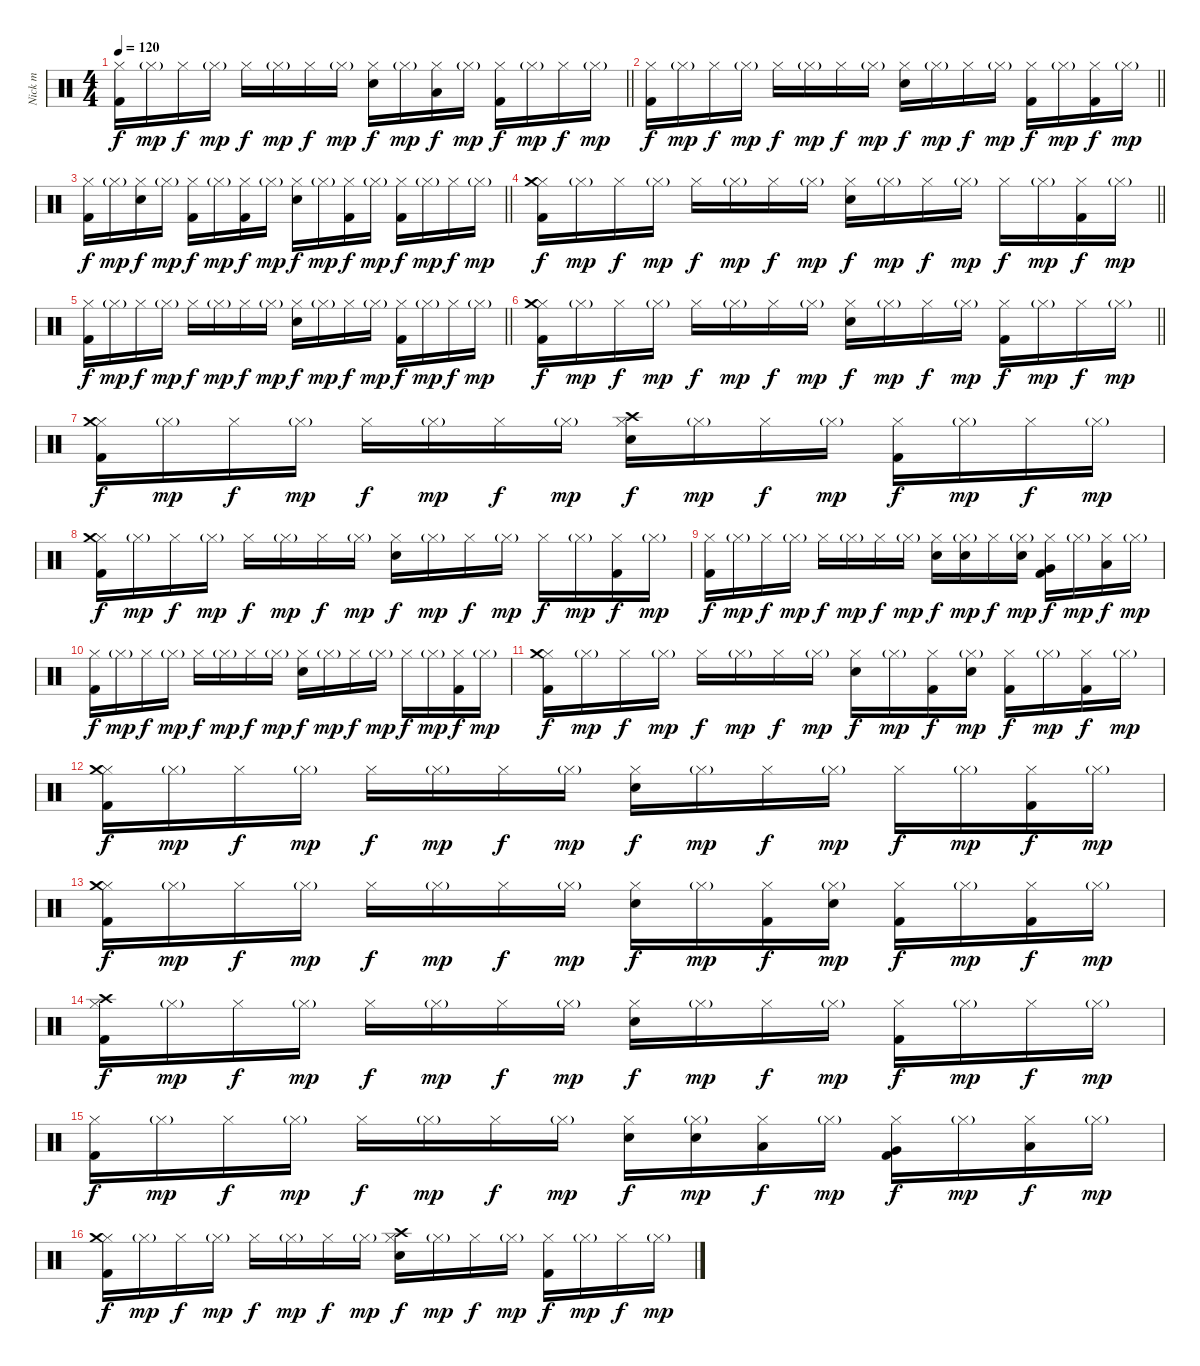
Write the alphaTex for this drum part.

\track ("Nick m" "Nick m") {instrument percussion}
\staff {score}
\articulation defaults
\ts (4 4)
\tempo 120
\clef neutral
\barLineRight lightlight
\ks c
("Hi-Hat (closed)" "Kick (hit) 2").16{dy f} "Hi-Hat (closed)"{g}.16{dy mp} "Hi-Hat (closed)".16{dy f} "Hi-Hat (closed)"{g}.16{dy mp} "Hi-Hat (closed)".16{dy f} "Hi-Hat (closed)"{g}.16{dy mp} "Hi-Hat (closed)".16{dy f} "Hi-Hat (closed)"{g}.16{dy mp} ("Hi-Hat (closed)" "Snare (hit) 2").16{dy f} "Hi-Hat (closed)"{g}.16{dy mp} ("Hi-Hat (closed)" "Low Floor Tom (hit)").16{dy f} "Hi-Hat (closed)"{g}.16{dy mp} ("Hi-Hat (closed)" "Kick (hit) 2").16{dy f} "Hi-Hat (closed)"{g}.16{dy mp} "Hi-Hat (closed)".16{dy f} "Hi-Hat (closed)"{g}.16{dy mp} |
\barLineRight lightlight
("Hi-Hat (closed)" "Kick (hit) 2").16{dy f} "Hi-Hat (closed)"{g}.16{dy mp} "Hi-Hat (closed)".16{dy f} "Hi-Hat (closed)"{g}.16{dy mp} "Hi-Hat (closed)".16{dy f} "Hi-Hat (closed)"{g}.16{dy mp} "Hi-Hat (closed)".16{dy f} "Hi-Hat (closed)"{g}.16{dy mp} ("Hi-Hat (closed)" "Snare (hit) 2").16{dy f} "Hi-Hat (closed)"{g}.16{dy mp} "Hi-Hat (closed)".16{dy f} "Hi-Hat (closed)"{g}.16{dy mp} ("Hi-Hat (closed)" "Kick (hit) 2").16{dy f} "Hi-Hat (closed)"{g}.16{dy mp} ("Hi-Hat (closed)" "Kick (hit) 2").16{dy f} "Hi-Hat (closed)"{g}.16{dy mp} |
\barLineRight lightlight
("Hi-Hat (closed)" "Kick (hit) 2").16{dy f} "Hi-Hat (closed)"{g}.16{dy mp} ("Hi-Hat (closed)" "Snare (hit) 2").16{dy f} "Hi-Hat (closed)"{g}.16{dy mp} ("Hi-Hat (closed)" "Kick (hit) 2").16{dy f} "Hi-Hat (closed)"{g}.16{dy mp} ("Hi-Hat (closed)" "Kick (hit) 2").16{dy f} "Hi-Hat (closed)"{g}.16{dy mp} ("Hi-Hat (closed)" "Snare (hit) 2").16{dy f} "Hi-Hat (closed)"{g}.16{dy mp} ("Hi-Hat (closed)" "Kick (hit) 2").16{dy f} "Hi-Hat (closed)"{g}.16{dy mp} ("Hi-Hat (closed)" "Kick (hit) 2").16{dy f} "Hi-Hat (closed)"{g}.16{dy mp} "Hi-Hat (closed)".16{dy f} "Hi-Hat (closed)"{g}.16{dy mp} |
\barLineRight lightlight
("Hi-Hat (closed)" "Crash medium (hit)" "Kick (hit) 2").16{dy f} "Hi-Hat (closed)"{g}.16{dy mp} "Hi-Hat (closed)".16{dy f} "Hi-Hat (closed)"{g}.16{dy mp} "Hi-Hat (closed)".16{dy f} "Hi-Hat (closed)"{g}.16{dy mp} "Hi-Hat (closed)".16{dy f} "Hi-Hat (closed)"{g}.16{dy mp} ("Hi-Hat (closed)" "Snare (hit) 2").16{dy f} "Hi-Hat (closed)"{g}.16{dy mp} "Hi-Hat (closed)".16{dy f} "Hi-Hat (closed)"{g}.16{dy mp} "Hi-Hat (closed)".16{dy f} "Hi-Hat (closed)"{g}.16{dy mp} ("Hi-Hat (closed)" "Kick (hit) 2").16{dy f} "Hi-Hat (closed)"{g}.16{dy mp} |
\barLineRight lightlight
("Hi-Hat (closed)" "Kick (hit) 2").16{dy f} "Hi-Hat (closed)"{g}.16{dy mp} "Hi-Hat (closed)".16{dy f} "Hi-Hat (closed)"{g}.16{dy mp} "Hi-Hat (closed)".16{dy f} "Hi-Hat (closed)"{g}.16{dy mp} "Hi-Hat (closed)".16{dy f} "Hi-Hat (closed)"{g}.16{dy mp} ("Hi-Hat (closed)" "Snare (hit) 2").16{dy f} "Hi-Hat (closed)"{g}.16{dy mp} "Hi-Hat (closed)".16{dy f} "Hi-Hat (closed)"{g}.16{dy mp} ("Hi-Hat (closed)" "Kick (hit) 2").16{dy f} "Hi-Hat (closed)"{g}.16{dy mp} "Hi-Hat (closed)".16{dy f} "Hi-Hat (closed)"{g}.16{dy mp} |
\barLineRight lightlight
("Hi-Hat (closed)" "Crash medium (hit)" "Kick (hit) 2").16{dy f} "Hi-Hat (closed)"{g}.16{dy mp} "Hi-Hat (closed)".16{dy f} "Hi-Hat (closed)"{g}.16{dy mp} "Hi-Hat (closed)".16{dy f} "Hi-Hat (closed)"{g}.16{dy mp} "Hi-Hat (closed)".16{dy f} "Hi-Hat (closed)"{g}.16{dy mp} ("Hi-Hat (closed)" "Snare (hit) 2").16{dy f} "Hi-Hat (closed)"{g}.16{dy mp} "Hi-Hat (closed)".16{dy f} "Hi-Hat (closed)"{g}.16{dy mp} ("Hi-Hat (closed)" "Kick (hit) 2").16{dy f} "Hi-Hat (closed)"{g}.16{dy mp} "Hi-Hat (closed)".16{dy f} "Hi-Hat (closed)"{g}.16{dy mp} |
("Hi-Hat (closed)" "Crash medium (hit)" "Kick (hit) 2").16{dy f} "Hi-Hat (closed)"{g}.16{dy mp} "Hi-Hat (closed)".16{dy f} "Hi-Hat (closed)"{g}.16{dy mp} "Hi-Hat (closed)".16{dy f} "Hi-Hat (closed)"{g}.16{dy mp} "Hi-Hat (closed)".16{dy f} "Hi-Hat (closed)"{g}.16{dy mp} ("Hi-Hat (closed)" "Crash high (hit)" "Snare (hit) 2").16{dy f} "Hi-Hat (closed)"{g}.16{dy mp} "Hi-Hat (closed)".16{dy f} "Hi-Hat (closed)"{g}.16{dy mp} ("Hi-Hat (closed)" "Kick (hit) 2").16{dy f} "Hi-Hat (closed)"{g}.16{dy mp} "Hi-Hat (closed)".16{dy f} "Hi-Hat (closed)"{g}.16{dy mp} |
("Hi-Hat (closed)" "Crash medium (hit)" "Kick (hit) 2").16{dy f} "Hi-Hat (closed)"{g}.16{dy mp} "Hi-Hat (closed)".16{dy f} "Hi-Hat (closed)"{g}.16{dy mp} "Hi-Hat (closed)".16{dy f} "Hi-Hat (closed)"{g}.16{dy mp} "Hi-Hat (closed)".16{dy f} "Hi-Hat (closed)"{g}.16{dy mp} ("Hi-Hat (closed)" "Snare (hit) 2").16{dy f} "Hi-Hat (closed)"{g}.16{dy mp} "Hi-Hat (closed)".16{dy f} "Hi-Hat (closed)"{g}.16{dy mp} "Hi-Hat (closed)".16{dy f} "Hi-Hat (closed)"{g}.16{dy mp} ("Hi-Hat (closed)" "Kick (hit) 2").16{dy f} "Hi-Hat (closed)"{g}.16{dy mp} |
("Hi-Hat (closed)" "Kick (hit) 2").16{dy f} "Hi-Hat (closed)"{g}.16{dy mp} "Hi-Hat (closed)".16{dy f} "Hi-Hat (closed)"{g}.16{dy mp} "Hi-Hat (closed)".16{dy f} "Hi-Hat (closed)"{g}.16{dy mp} "Hi-Hat (closed)".16{dy f} "Hi-Hat (closed)"{g}.16{dy mp} ("Hi-Hat (closed)" "Snare (hit) 2").16{dy f} ("Hi-Hat (closed)"{g} "Snare (hit) 2").16{dy mp} "Hi-Hat (closed)".16{dy f} ("Hi-Hat (closed)"{g} "Snare (hit) 2").16{dy mp} ("Hi-Hat (closed)" "Very Low Tom (hit)" "Kick (hit) 2").16{dy f} "Hi-Hat (closed)"{g}.16{dy mp} ("Hi-Hat (closed)" "Low Floor Tom (hit)").16{dy f} "Hi-Hat (closed)"{g}.16{dy mp} |
("Hi-Hat (closed)" "Kick (hit) 2").16{dy f} "Hi-Hat (closed)"{g}.16{dy mp} "Hi-Hat (closed)".16{dy f} "Hi-Hat (closed)"{g}.16{dy mp} "Hi-Hat (closed)".16{dy f} "Hi-Hat (closed)"{g}.16{dy mp} "Hi-Hat (closed)".16{dy f} "Hi-Hat (closed)"{g}.16{dy mp} ("Hi-Hat (closed)" "Snare (hit) 2").16{dy f} "Hi-Hat (closed)"{g}.16{dy mp} "Hi-Hat (closed)".16{dy f} "Hi-Hat (closed)"{g}.16{dy mp} "Hi-Hat (closed)".16{dy f} "Hi-Hat (closed)"{g}.16{dy mp} ("Hi-Hat (closed)" "Kick (hit) 2").16{dy f} "Hi-Hat (closed)"{g}.16{dy mp} |
("Hi-Hat (closed)" "Crash medium (hit)" "Kick (hit) 2").16{dy f} "Hi-Hat (closed)"{g}.16{dy mp} "Hi-Hat (closed)".16{dy f} "Hi-Hat (closed)"{g}.16{dy mp} "Hi-Hat (closed)".16{dy f} "Hi-Hat (closed)"{g}.16{dy mp} "Hi-Hat (closed)".16{dy f} "Hi-Hat (closed)"{g}.16{dy mp} ("Hi-Hat (closed)" "Snare (hit) 2").16{dy f} "Hi-Hat (closed)"{g}.16{dy mp} ("Hi-Hat (closed)" "Kick (hit) 2").16{dy f} ("Hi-Hat (closed)"{g} "Snare (hit) 2").16{dy mp} ("Hi-Hat (closed)" "Kick (hit) 2").16{dy f} "Hi-Hat (closed)"{g}.16{dy mp} ("Hi-Hat (closed)" "Kick (hit) 2").16{dy f} "Hi-Hat (closed)"{g}.16{dy mp} |
("Hi-Hat (closed)" "Crash medium (hit)" "Kick (hit) 2").16{dy f} "Hi-Hat (closed)"{g}.16{dy mp} "Hi-Hat (closed)".16{dy f} "Hi-Hat (closed)"{g}.16{dy mp} "Hi-Hat (closed)".16{dy f} "Hi-Hat (closed)"{g}.16{dy mp} "Hi-Hat (closed)".16{dy f} "Hi-Hat (closed)"{g}.16{dy mp} ("Hi-Hat (closed)" "Snare (hit) 2").16{dy f} "Hi-Hat (closed)"{g}.16{dy mp} "Hi-Hat (closed)".16{dy f} "Hi-Hat (closed)"{g}.16{dy mp} "Hi-Hat (closed)".16{dy f} "Hi-Hat (closed)"{g}.16{dy mp} ("Hi-Hat (closed)" "Kick (hit) 2").16{dy f} "Hi-Hat (closed)"{g}.16{dy mp} |
("Hi-Hat (closed)" "Crash medium (hit)" "Kick (hit) 2").16{dy f} "Hi-Hat (closed)"{g}.16{dy mp} "Hi-Hat (closed)".16{dy f} "Hi-Hat (closed)"{g}.16{dy mp} "Hi-Hat (closed)".16{dy f} "Hi-Hat (closed)"{g}.16{dy mp} "Hi-Hat (closed)".16{dy f} "Hi-Hat (closed)"{g}.16{dy mp} ("Hi-Hat (closed)" "Snare (hit) 2").16{dy f} "Hi-Hat (closed)"{g}.16{dy mp} ("Hi-Hat (closed)" "Kick (hit) 2").16{dy f} ("Hi-Hat (closed)"{g} "Snare (hit) 2").16{dy mp} ("Hi-Hat (closed)" "Kick (hit) 2").16{dy f} "Hi-Hat (closed)"{g}.16{dy mp} ("Hi-Hat (closed)" "Kick (hit) 2").16{dy f} "Hi-Hat (closed)"{g}.16{dy mp} |
("Hi-Hat (closed)" "Crash high (hit)" "Kick (hit) 2").16{dy f} "Hi-Hat (closed)"{g}.16{dy mp} "Hi-Hat (closed)".16{dy f} "Hi-Hat (closed)"{g}.16{dy mp} "Hi-Hat (closed)".16{dy f} "Hi-Hat (closed)"{g}.16{dy mp} "Hi-Hat (closed)".16{dy f} "Hi-Hat (closed)"{g}.16{dy mp} ("Hi-Hat (closed)" "Snare (hit) 2").16{dy f} "Hi-Hat (closed)"{g}.16{dy mp} "Hi-Hat (closed)".16{dy f} "Hi-Hat (closed)"{g}.16{dy mp} ("Hi-Hat (closed)" "Kick (hit) 2").16{dy f} "Hi-Hat (closed)"{g}.16{dy mp} "Hi-Hat (closed)".16{dy f} "Hi-Hat (closed)"{g}.16{dy mp} |
("Hi-Hat (closed)" "Kick (hit) 2").16{dy f} "Hi-Hat (closed)"{g}.16{dy mp} "Hi-Hat (closed)".16{dy f} "Hi-Hat (closed)"{g}.16{dy mp} "Hi-Hat (closed)".16{dy f} "Hi-Hat (closed)"{g}.16{dy mp} "Hi-Hat (closed)".16{dy f} "Hi-Hat (closed)"{g}.16{dy mp} ("Hi-Hat (closed)" "Snare (hit) 2").16{dy f} ("Hi-Hat (closed)"{g} "Snare (hit) 2").16{dy mp} ("Hi-Hat (closed)" "Low Tom (hit)").16{dy f} "Hi-Hat (closed)"{g}.16{dy mp} ("Hi-Hat (closed)" "Very Low Tom (hit)" "Kick (hit) 2").16{dy f} "Hi-Hat (closed)"{g}.16{dy mp} ("Hi-Hat (closed)" "Low Floor Tom (hit)").16{dy f} "Hi-Hat (closed)"{g}.16{dy mp} |
("Hi-Hat (closed)" "Crash medium (hit)" "Kick (hit) 2").16{dy f} "Hi-Hat (closed)"{g}.16{dy mp} "Hi-Hat (closed)".16{dy f} "Hi-Hat (closed)"{g}.16{dy mp} "Hi-Hat (closed)".16{dy f} "Hi-Hat (closed)"{g}.16{dy mp} "Hi-Hat (closed)".16{dy f} "Hi-Hat (closed)"{g}.16{dy mp} ("Hi-Hat (closed)" "Crash high (hit)" "Snare (hit) 2").16{dy f} "Hi-Hat (closed)"{g}.16{dy mp} "Hi-Hat (closed)".16{dy f} "Hi-Hat (closed)"{g}.16{dy mp} ("Hi-Hat (closed)" "Kick (hit) 2").16{dy f} "Hi-Hat (closed)"{g}.16{dy mp} "Hi-Hat (closed)".16{dy f} "Hi-Hat (closed)"{g}.16{dy mp}
